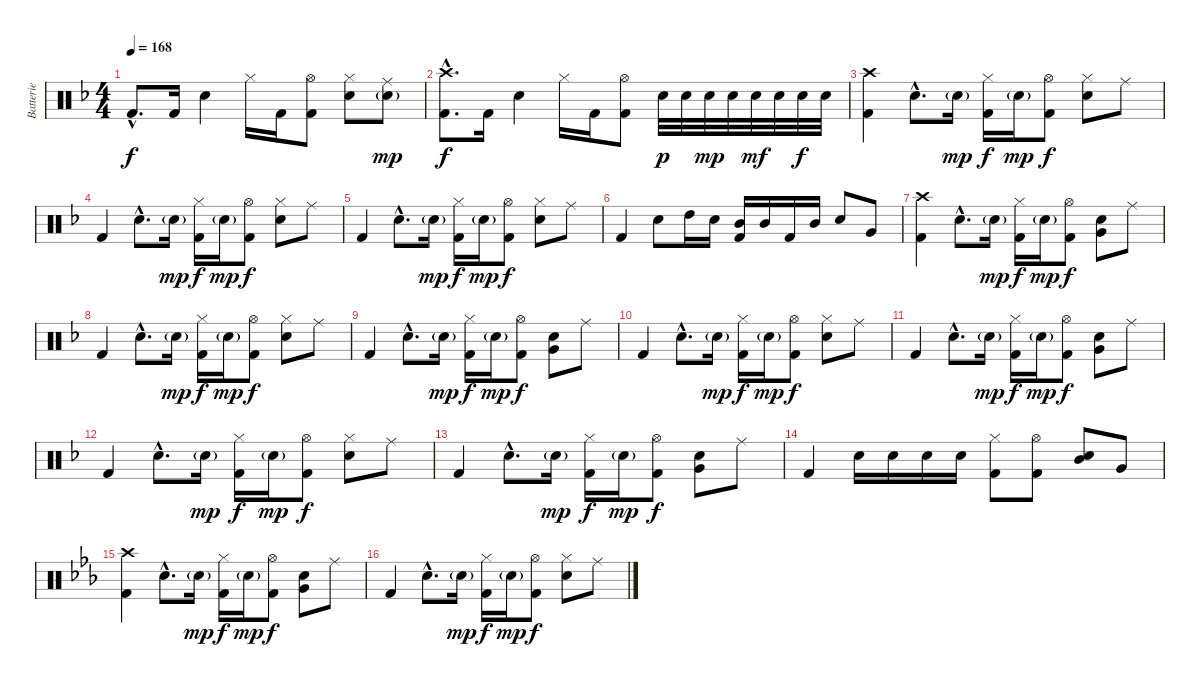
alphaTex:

\track ("Batterie" "Batterie") {instrument percussion}
\staff {score}
\articulation defaults
\ts (4 4)
\tempo 168
\clef neutral
\ks f "Kick (hit) 2"{hac}.8{d dy f} "Kick (hit) 2".16 "Snare (hit) 2".4 "Hi-Hat (closed)".16 "Kick (hit) 2".16
("Hi-Hat (open)" "Kick (hit) 2").8 ("Hi-Hat (closed)" "Snare (hit) 2").8 ("Ride (middle)" "Snare (hit) 2"{g}).8{dy mp} |
("Crash high (hit)"{hac} "Kick (hit) 2"{hac}).8{d dy f} "Kick (hit) 2".16 "Snare (hit) 2".4 "Hi-Hat (closed)".16 "Kick (hit) 2".16 ("Hi-Hat (open)" "Kick (hit) 2").8 "Snare (hit) 2".32{dy p} "Snare (hit) 2".32 "Snare (hit) 2".32{dy mp} "Snare (hit) 2".32 "Snare (hit) 2".32{dy mf} "Snare (hit) 2".32 "Snare (hit) 2".32{dy f} "Snare (hit) 2".32 |
("Crash high (hit)" "Kick (hit) 2").4 "Snare (hit) 2"{hac}.8{d} "Snare (hit) 2"{g}.16{dy mp} ("Hi-Hat (closed)" "Kick (hit) 2").16{dy f} "Snare (hit) 2"{g}.16{dy mp} ("Hi-Hat (open)" "Kick (hit) 2").8{dy f} ("Hi-Hat (closed)" "Snare (hit) 2").8 "Ride (middle)".8 |
"Kick (hit) 2".4 "Snare (hit) 2"{hac}.8{d} "Snare (hit) 2"{g}.16{dy mp} ("Hi-Hat (closed)" "Kick (hit) 2").16{dy f} "Snare (hit) 2"{g}.16{dy mp} ("Hi-Hat (open)" "Kick (hit) 2").8{dy f} ("Hi-Hat (closed)" "Snare (hit) 2").8 "Ride (middle)".8 |
"Kick (hit) 2".4 "Snare (hit) 2"{hac}.8{d} "Snare (hit) 2"{g}.16{dy mp} ("Hi-Hat (closed)" "Kick (hit) 2").16{dy f} "Snare (hit) 2"{g}.16{dy mp} ("Hi-Hat (open)" "Kick (hit) 2").8{dy f} ("Hi-Hat (closed)" "Snare (hit) 2").8 "Ride (middle)".8 |
"Kick (hit) 2".4 "Snare (hit) 2".8 "High Tom (hit)".16 "Snare (hit) 2".16 ("Mid Tom (hit)" "Kick (hit) 2").16 "Mid Tom (hit)".16 "Kick (hit) 2".16 "Mid Tom (hit)".16 "Snare (hit) 2".8 "Very Low Tom (hit)".8 |
("Crash high (hit)" "Kick (hit) 2").4 "Snare (hit) 2"{hac}.8{d} "Snare (hit) 2"{g}.16{dy mp} ("Hi-Hat (closed)" "Kick (hit) 2").16{dy f} "Snare (hit) 2"{g}.16{dy mp} ("Hi-Hat (open)" "Kick (hit) 2").8{dy f} ("Snare (hit) 2" "Very Low Tom (hit)").8 "Ride (middle)".8 |
"Kick (hit) 2".4 "Snare (hit) 2"{hac}.8{d} "Snare (hit) 2"{g}.16{dy mp} ("Hi-Hat (closed)" "Kick (hit) 2").16{dy f} "Snare (hit) 2"{g}.16{dy mp} ("Hi-Hat (open)" "Kick (hit) 2").8{dy f} ("Hi-Hat (closed)" "Snare (hit) 2").8 "Ride (middle)".8 |
"Kick (hit) 2".4 "Snare (hit) 2"{hac}.8{d} "Snare (hit) 2"{g}.16{dy mp} ("Hi-Hat (closed)" "Kick (hit) 2").16{dy f} "Snare (hit) 2"{g}.16{dy mp} ("Hi-Hat (open)" "Kick (hit) 2").8{dy f} ("Snare (hit) 2" "Very Low Tom (hit)").8 "Ride (middle)".8 |
"Kick (hit) 2".4 "Snare (hit) 2"{hac}.8{d} "Snare (hit) 2"{g}.16{dy mp} ("Hi-Hat (closed)" "Kick (hit) 2").16{dy f} "Snare (hit) 2"{g}.16{dy mp} ("Hi-Hat (open)" "Kick (hit) 2").8{dy f} ("Hi-Hat (closed)" "Snare (hit) 2").8 "Ride (middle)".8 |
"Kick (hit) 2".4 "Snare (hit) 2"{hac}.8{d} "Snare (hit) 2"{g}.16{dy mp} ("Hi-Hat (closed)" "Kick (hit) 2").16{dy f} "Snare (hit) 2"{g}.16{dy mp} ("Hi-Hat (open)" "Kick (hit) 2").8{dy f} ("Snare (hit) 2" "Very Low Tom (hit)").8 "Ride (middle)".8 |
"Kick (hit) 2".4 "Snare (hit) 2"{hac}.8{d} "Snare (hit) 2"{g}.16{dy mp} ("Hi-Hat (closed)" "Kick (hit) 2").16{dy f} "Snare (hit) 2"{g}.16{dy mp} ("Hi-Hat (open)" "Kick (hit) 2").8{dy f} ("Hi-Hat (closed)" "Snare (hit) 2").8 "Ride (middle)".8 |
"Kick (hit) 2".4 "Snare (hit) 2"{hac}.8{d} "Snare (hit) 2"{g}.16{dy mp} ("Hi-Hat (closed)" "Kick (hit) 2").16{dy f} "Snare (hit) 2"{g}.16{dy mp} ("Hi-Hat (open)" "Kick (hit) 2").8{dy f} ("Snare (hit) 2" "Very Low Tom (hit)").8 "Ride (middle)".8 |
"Kick (hit) 2".4 "Snare (hit) 2".16 "Snare (hit) 2".16 "Snare (hit) 2".16 "Snare (hit) 2".16 ("Hi-Hat (closed)" "Kick (hit) 2").8 ("Hi-Hat (open)" "Kick (hit) 2").8 ("Mid Tom (hit)" "Snare (hit) 2").8 "Very Low Tom (hit)".8 |
\ks eb
("Crash high (hit)" "Kick (hit) 2").4 "Snare (hit) 2"{hac}.8{d} "Snare (hit) 2"{g}.16{dy mp} ("Hi-Hat (closed)" "Kick (hit) 2").16{dy f} "Snare (hit) 2"{g}.16{dy mp} ("Hi-Hat (open)" "Kick (hit) 2").8{dy f} ("Snare (hit) 2" "Very Low Tom (hit)").8 "Ride (middle)".8 |
"Kick (hit) 2".4 "Snare (hit) 2"{hac}.8{d} "Snare (hit) 2"{g}.16{dy mp} ("Hi-Hat (closed)" "Kick (hit) 2").16{dy f} "Snare (hit) 2"{g}.16{dy mp} ("Hi-Hat (open)" "Kick (hit) 2").8{dy f} ("Hi-Hat (closed)" "Snare (hit) 2").8 "Ride (middle)".8
